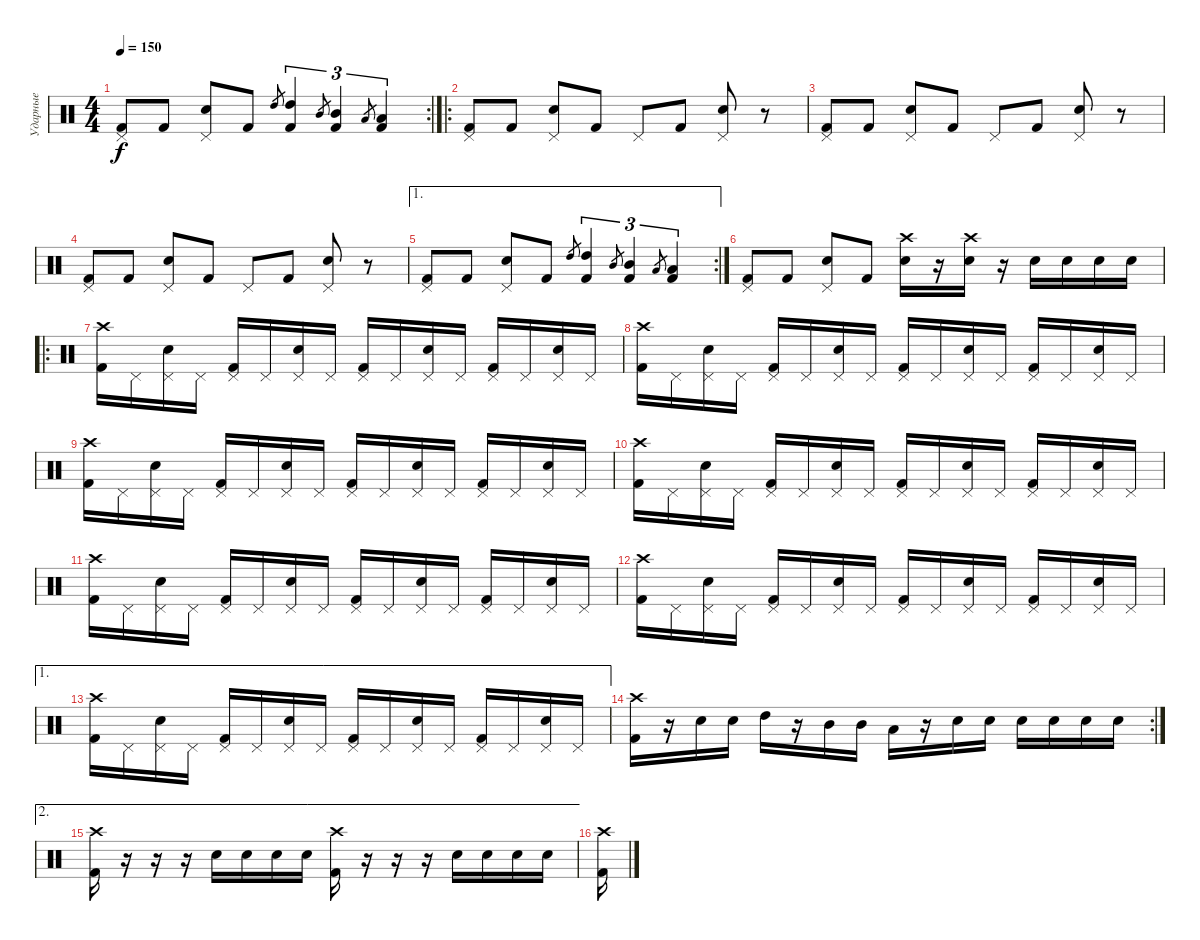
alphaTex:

\track ("Ударные" "Ударные") {instrument percussion}
\staff {score}
\articulation defaults
\rc 2
\ts (4 4)
\tempo 150
\clef neutral
\ks c
("Kick (hit) 2" "Pedal Hi-Hat (hit)").8{dy f} "Kick (hit) 2".8 ("Electric Snare (hit)" "Pedal Hi-Hat (hit)").8 "Kick (hit) 2".8 "High Tom (hit)".8{gr} ("High Tom (hit)" "Kick (hit) 2").4{tu (3 2)} "Mid Tom (hit)".8{gr} ("Mid Tom (hit)" "Kick (hit) 2").4{tu (3 2)} "Low Tom (hit)".8{gr} ("Low Tom (hit)" "Kick (hit) 2").4{tu (3 2)} |
\ro
("Kick (hit) 2" "Pedal Hi-Hat (hit)").8 "Kick (hit) 2".8 ("Electric Snare (hit)" "Pedal Hi-Hat (hit)").8 "Kick (hit) 2".8 "Pedal Hi-Hat (hit)".8 "Kick (hit) 2".8 ("Electric Snare (hit)" "Pedal Hi-Hat (hit)").8 r.8 |
("Kick (hit) 2" "Pedal Hi-Hat (hit)").8 "Kick (hit) 2".8 ("Electric Snare (hit)" "Pedal Hi-Hat (hit)").8 "Kick (hit) 2".8 "Pedal Hi-Hat (hit)".8 "Kick (hit) 2".8 ("Electric Snare (hit)" "Pedal Hi-Hat (hit)").8 r.8 |
("Kick (hit) 2" "Pedal Hi-Hat (hit)").8 "Kick (hit) 2".8 ("Electric Snare (hit)" "Pedal Hi-Hat (hit)").8 "Kick (hit) 2".8 "Pedal Hi-Hat (hit)".8 "Kick (hit) 2".8 ("Electric Snare (hit)" "Pedal Hi-Hat (hit)").8 r.8 |
\ae 1
\rc 2
("Kick (hit) 2" "Pedal Hi-Hat (hit)").8 "Kick (hit) 2".8 ("Electric Snare (hit)" "Pedal Hi-Hat (hit)").8 "Kick (hit) 2".8 "High Tom (hit)".8{gr} ("High Tom (hit)" "Kick (hit) 2").4{tu (3 2)} "Mid Tom (hit)".8{gr} ("Mid Tom (hit)" "Kick (hit) 2").4{tu (3 2)} "Low Tom (hit)".8{gr} ("Low Tom (hit)" "Kick (hit) 2").4{tu (3 2)} |
("Kick (hit) 2" "Pedal Hi-Hat (hit)").8 "Kick (hit) 2".8 ("Electric Snare (hit)" "Pedal Hi-Hat (hit)").8 "Kick (hit) 2".8 ("Crash high (hit)" "Electric Snare (hit)").16 r.16 ("Crash high (hit)" "Electric Snare (hit)").16 r.16 "Electric Snare (hit)".16 "Electric Snare (hit)".16 "Electric Snare (hit)".16 "Electric Snare (hit)".16 |
\ro
("Kick (hit) 2" "Crash high (hit)").16 "Pedal Hi-Hat (hit)".16 ("Electric Snare (hit)" "Pedal Hi-Hat (hit)").16 "Pedal Hi-Hat (hit)".16 ("Kick (hit) 2" "Pedal Hi-Hat (hit)").16 "Pedal Hi-Hat (hit)".16 ("Electric Snare (hit)" "Pedal Hi-Hat (hit)").16 "Pedal Hi-Hat (hit)".16 ("Kick (hit) 2" "Pedal Hi-Hat (hit)").16 "Pedal Hi-Hat (hit)".16 ("Electric Snare (hit)" "Pedal Hi-Hat (hit)").16 "Pedal Hi-Hat (hit)".16 ("Kick (hit) 2" "Pedal Hi-Hat (hit)").16 "Pedal Hi-Hat (hit)".16 ("Electric Snare (hit)" "Pedal Hi-Hat (hit)").16 "Pedal Hi-Hat (hit)".16 |
("Kick (hit) 2" "Crash high (hit)").16 "Pedal Hi-Hat (hit)".16 ("Electric Snare (hit)" "Pedal Hi-Hat (hit)").16 "Pedal Hi-Hat (hit)".16 ("Kick (hit) 2" "Pedal Hi-Hat (hit)").16 "Pedal Hi-Hat (hit)".16 ("Electric Snare (hit)" "Pedal Hi-Hat (hit)").16 "Pedal Hi-Hat (hit)".16 ("Kick (hit) 2" "Pedal Hi-Hat (hit)").16 "Pedal Hi-Hat (hit)".16 ("Electric Snare (hit)" "Pedal Hi-Hat (hit)").16 "Pedal Hi-Hat (hit)".16 ("Kick (hit) 2" "Pedal Hi-Hat (hit)").16 "Pedal Hi-Hat (hit)".16 ("Electric Snare (hit)" "Pedal Hi-Hat (hit)").16 "Pedal Hi-Hat (hit)".16 |
("Kick (hit) 2" "Crash high (hit)").16 "Pedal Hi-Hat (hit)".16 ("Electric Snare (hit)" "Pedal Hi-Hat (hit)").16 "Pedal Hi-Hat (hit)".16 ("Kick (hit) 2" "Pedal Hi-Hat (hit)").16 "Pedal Hi-Hat (hit)".16 ("Electric Snare (hit)" "Pedal Hi-Hat (hit)").16 "Pedal Hi-Hat (hit)".16 ("Kick (hit) 2" "Pedal Hi-Hat (hit)").16 "Pedal Hi-Hat (hit)".16 ("Electric Snare (hit)" "Pedal Hi-Hat (hit)").16 "Pedal Hi-Hat (hit)".16 ("Kick (hit) 2" "Pedal Hi-Hat (hit)").16 "Pedal Hi-Hat (hit)".16 ("Electric Snare (hit)" "Pedal Hi-Hat (hit)").16 "Pedal Hi-Hat (hit)".16 |
("Kick (hit) 2" "Crash high (hit)").16 "Pedal Hi-Hat (hit)".16 ("Electric Snare (hit)" "Pedal Hi-Hat (hit)").16 "Pedal Hi-Hat (hit)".16 ("Kick (hit) 2" "Pedal Hi-Hat (hit)").16 "Pedal Hi-Hat (hit)".16 ("Electric Snare (hit)" "Pedal Hi-Hat (hit)").16 "Pedal Hi-Hat (hit)".16 ("Kick (hit) 2" "Pedal Hi-Hat (hit)").16 "Pedal Hi-Hat (hit)".16 ("Electric Snare (hit)" "Pedal Hi-Hat (hit)").16 "Pedal Hi-Hat (hit)".16 ("Kick (hit) 2" "Pedal Hi-Hat (hit)").16 "Pedal Hi-Hat (hit)".16 ("Electric Snare (hit)" "Pedal Hi-Hat (hit)").16 "Pedal Hi-Hat (hit)".16 |
("Kick (hit) 2" "Crash high (hit)").16 "Pedal Hi-Hat (hit)".16 ("Electric Snare (hit)" "Pedal Hi-Hat (hit)").16 "Pedal Hi-Hat (hit)".16 ("Kick (hit) 2" "Pedal Hi-Hat (hit)").16 "Pedal Hi-Hat (hit)".16 ("Electric Snare (hit)" "Pedal Hi-Hat (hit)").16 "Pedal Hi-Hat (hit)".16 ("Kick (hit) 2" "Pedal Hi-Hat (hit)").16 "Pedal Hi-Hat (hit)".16 ("Electric Snare (hit)" "Pedal Hi-Hat (hit)").16 "Pedal Hi-Hat (hit)".16 ("Kick (hit) 2" "Pedal Hi-Hat (hit)").16 "Pedal Hi-Hat (hit)".16 ("Electric Snare (hit)" "Pedal Hi-Hat (hit)").16 "Pedal Hi-Hat (hit)".16 |
("Kick (hit) 2" "Crash high (hit)").16 "Pedal Hi-Hat (hit)".16 ("Electric Snare (hit)" "Pedal Hi-Hat (hit)").16 "Pedal Hi-Hat (hit)".16 ("Kick (hit) 2" "Pedal Hi-Hat (hit)").16 "Pedal Hi-Hat (hit)".16 ("Electric Snare (hit)" "Pedal Hi-Hat (hit)").16 "Pedal Hi-Hat (hit)".16 ("Kick (hit) 2" "Pedal Hi-Hat (hit)").16 "Pedal Hi-Hat (hit)".16 ("Electric Snare (hit)" "Pedal Hi-Hat (hit)").16 "Pedal Hi-Hat (hit)".16 ("Kick (hit) 2" "Pedal Hi-Hat (hit)").16 "Pedal Hi-Hat (hit)".16 ("Electric Snare (hit)" "Pedal Hi-Hat (hit)").16 "Pedal Hi-Hat (hit)".16 |
\ae 1
("Kick (hit) 2" "Crash high (hit)").16 "Pedal Hi-Hat (hit)".16 ("Electric Snare (hit)" "Pedal Hi-Hat (hit)").16 "Pedal Hi-Hat (hit)".16 ("Kick (hit) 2" "Pedal Hi-Hat (hit)").16 "Pedal Hi-Hat (hit)".16 ("Electric Snare (hit)" "Pedal Hi-Hat (hit)").16 "Pedal Hi-Hat (hit)".16 ("Kick (hit) 2" "Pedal Hi-Hat (hit)").16 "Pedal Hi-Hat (hit)".16 ("Electric Snare (hit)" "Pedal Hi-Hat (hit)").16 "Pedal Hi-Hat (hit)".16 ("Kick (hit) 2" "Pedal Hi-Hat (hit)").16 "Pedal Hi-Hat (hit)".16 ("Electric Snare (hit)" "Pedal Hi-Hat (hit)").16 "Pedal Hi-Hat (hit)".16 |
\rc 2
("Kick (hit) 2" "Crash high (hit)").16 r.16 "Electric Snare (hit)".16 "Electric Snare (hit)".16 "High Tom (hit)".16 r.16 "Mid Tom (hit)".16 "Mid Tom (hit)".16 "Low Tom (hit)".16 r.16 "Electric Snare (hit)".16 "Electric Snare (hit)".16 "Electric Snare (hit)".16 "Electric Snare (hit)".16 "Electric Snare (hit)".16 "Electric Snare (hit)".16 |
\ae 2
("Kick (hit) 2" "Crash high (hit)").16 r.16 r.16 r.16 "Electric Snare (hit)".16 "Electric Snare (hit)".16 "Electric Snare (hit)".16 "Electric Snare (hit)".16 ("Kick (hit) 2" "Crash high (hit)").16 r.16 r.16 r.16 "Electric Snare (hit)".16 "Electric Snare (hit)".16 "Electric Snare (hit)".16 "Electric Snare (hit)".16 |
("Kick (hit) 2" "Crash high (hit)").16
